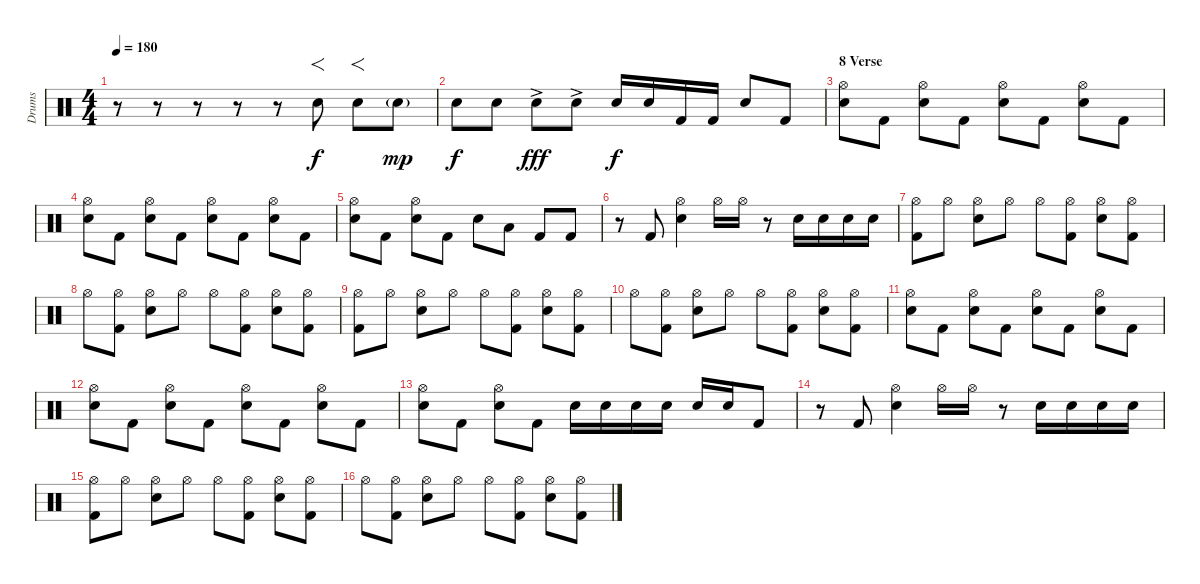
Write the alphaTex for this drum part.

\track ("Drums" "Drums") {instrument percussion}
\staff {score}
\articulation defaults
\ts (4 4)
\tempo 180
\clef neutral
\ks c
r.8{dy f} r.8 r.8 r.8 r.8 "Electric Snare (hit)".8{f} "Electric Snare (hit)".8{f} "Electric Snare (hit)"{g}.8{dy mp} |
"Electric Snare (hit)".8{dy f} "Electric Snare (hit)".8 "Electric Snare (hit)"{ac}.8{dy fff} "Electric Snare (hit)"{ac}.8 "Electric Snare (hit)".16{dy f} "Electric Snare (hit)".16 "Kick (hit) 2".16 "Kick (hit) 2".16 "Electric Snare (hit)".8 "Kick (hit) 2".8 |
\section ("" "8 Verse")
("Hi-Hat (open)" "Electric Snare (hit)").8 "Kick (hit) 2".8 ("Hi-Hat (open)" "Electric Snare (hit)").8 "Kick (hit) 2".8 ("Hi-Hat (open)" "Electric Snare (hit)").8 "Kick (hit) 2".8 ("Hi-Hat (open)" "Electric Snare (hit)").8 "Kick (hit) 2".8 |
("Hi-Hat (open)" "Electric Snare (hit)").8 "Kick (hit) 2".8 ("Hi-Hat (open)" "Electric Snare (hit)").8 "Kick (hit) 2".8 ("Hi-Hat (open)" "Electric Snare (hit)").8 "Kick (hit) 2".8 ("Hi-Hat (open)" "Electric Snare (hit)").8 "Kick (hit) 2".8 |
("Hi-Hat (open)" "Electric Snare (hit)").8 "Kick (hit) 2".8 ("Hi-Hat (open)" "Electric Snare (hit)").8 "Kick (hit) 2".8 "Electric Snare (hit)".8 "Low Tom (hit)".8 "Kick (hit) 2".8 "Kick (hit) 2".8 |
r.8 "Kick (hit) 2".8 ("Hi-Hat (open)" "Electric Snare (hit)").4 "Hi-Hat (open)".16 "Hi-Hat (open)".16 r.8 "Electric Snare (hit)".16 "Electric Snare (hit)".16 "Electric Snare (hit)".16 "Electric Snare (hit)".16 |
("Hi-Hat (open)" "Kick (hit) 2").8 "Hi-Hat (open)".8 ("Hi-Hat (open)" "Electric Snare (hit)").8 "Hi-Hat (open)".8 "Hi-Hat (open)".8 ("Hi-Hat (open)" "Kick (hit) 2").8 ("Hi-Hat (open)" "Electric Snare (hit)").8 ("Hi-Hat (open)" "Kick (hit) 2").8 |
"Hi-Hat (open)".8 ("Hi-Hat (open)" "Kick (hit) 2").8 ("Hi-Hat (open)" "Electric Snare (hit)").8 "Hi-Hat (open)".8 "Hi-Hat (open)".8 ("Hi-Hat (open)" "Kick (hit) 2").8 ("Hi-Hat (open)" "Electric Snare (hit)").8 ("Hi-Hat (open)" "Kick (hit) 2").8 |
("Hi-Hat (open)" "Kick (hit) 2").8 "Hi-Hat (open)".8 ("Hi-Hat (open)" "Electric Snare (hit)").8 "Hi-Hat (open)".8 "Hi-Hat (open)".8 ("Hi-Hat (open)" "Kick (hit) 2").8 ("Hi-Hat (open)" "Electric Snare (hit)").8 ("Hi-Hat (open)" "Kick (hit) 2").8 |
"Hi-Hat (open)".8 ("Hi-Hat (open)" "Kick (hit) 2").8 ("Hi-Hat (open)" "Electric Snare (hit)").8 "Hi-Hat (open)".8 "Hi-Hat (open)".8 ("Hi-Hat (open)" "Kick (hit) 2").8 ("Hi-Hat (open)" "Electric Snare (hit)").8 ("Hi-Hat (open)" "Kick (hit) 2").8 |
("Hi-Hat (open)" "Electric Snare (hit)").8 "Kick (hit) 2".8 ("Hi-Hat (open)" "Electric Snare (hit)").8 "Kick (hit) 2".8 ("Hi-Hat (open)" "Electric Snare (hit)").8 "Kick (hit) 2".8 ("Hi-Hat (open)" "Electric Snare (hit)").8 "Kick (hit) 2".8 |
("Hi-Hat (open)" "Electric Snare (hit)").8 "Kick (hit) 2".8 ("Hi-Hat (open)" "Electric Snare (hit)").8 "Kick (hit) 2".8 ("Hi-Hat (open)" "Electric Snare (hit)").8 "Kick (hit) 2".8 ("Hi-Hat (open)" "Electric Snare (hit)").8 "Kick (hit) 2".8 |
("Hi-Hat (open)" "Electric Snare (hit)").8 "Kick (hit) 2".8 ("Hi-Hat (open)" "Electric Snare (hit)").8 "Kick (hit) 2".8 "Electric Snare (hit)".16 "Electric Snare (hit)".16 "Electric Snare (hit)".16 "Electric Snare (hit)".16 "Electric Snare (hit)".16 "Electric Snare (hit)".16 "Kick (hit) 2".8 |
r.8 "Kick (hit) 2".8 ("Hi-Hat (open)" "Electric Snare (hit)").4 "Hi-Hat (open)".16 "Hi-Hat (open)".16 r.8 "Electric Snare (hit)".16 "Electric Snare (hit)".16 "Electric Snare (hit)".16 "Electric Snare (hit)".16 |
("Hi-Hat (open)" "Kick (hit) 2").8 "Hi-Hat (open)".8 ("Hi-Hat (open)" "Electric Snare (hit)").8 "Hi-Hat (open)".8 "Hi-Hat (open)".8 ("Hi-Hat (open)" "Kick (hit) 2").8 ("Hi-Hat (open)" "Electric Snare (hit)").8 ("Hi-Hat (open)" "Kick (hit) 2").8 |
"Hi-Hat (open)".8 ("Hi-Hat (open)" "Kick (hit) 2").8 ("Hi-Hat (open)" "Electric Snare (hit)").8 "Hi-Hat (open)".8 "Hi-Hat (open)".8 ("Hi-Hat (open)" "Kick (hit) 2").8 ("Hi-Hat (open)" "Electric Snare (hit)").8 ("Hi-Hat (open)" "Kick (hit) 2").8
